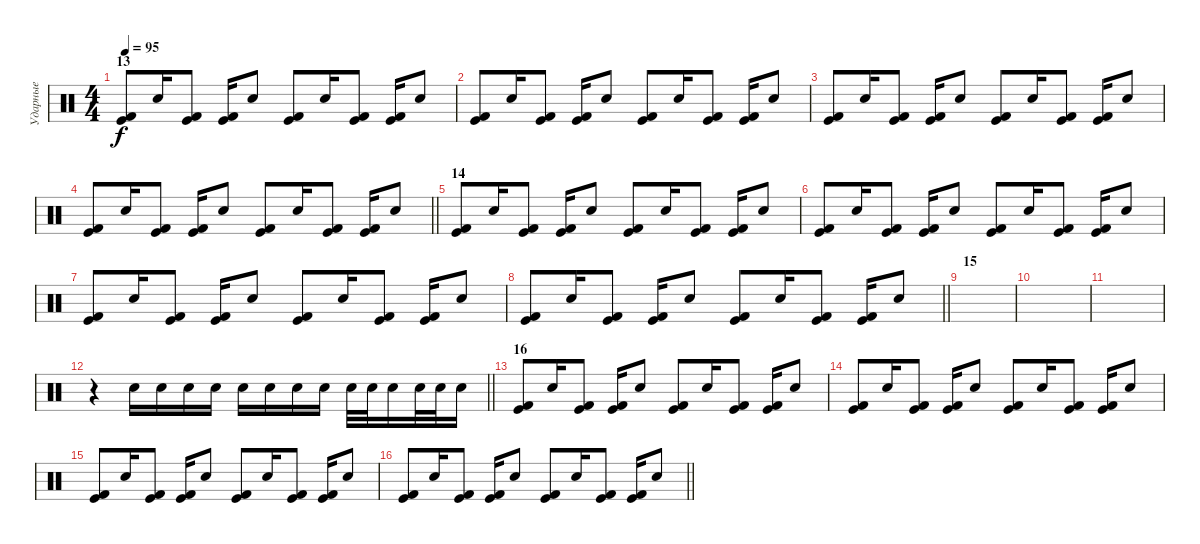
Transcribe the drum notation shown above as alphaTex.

\track ("Ударные" "Ударные") {instrument percussion}
\staff {score}
\articulation defaults
\ts (4 4)
\section ("" "13")
\tempo 95
\clef neutral
\ks c
("Kick (hit) 2" "Kick (hit)").8{dy f} "Electric Snare (hit)".16 ("Kick (hit) 2" "Kick (hit)").8 ("Kick (hit) 2" "Kick (hit)").16 "Electric Snare (hit)".8 ("Kick (hit) 2" "Kick (hit)").8 "Electric Snare (hit)".16 ("Kick (hit) 2" "Kick (hit)").8 ("Kick (hit) 2" "Kick (hit)").16 "Electric Snare (hit)".8 |
("Kick (hit) 2" "Kick (hit)").8 "Electric Snare (hit)".16 ("Kick (hit) 2" "Kick (hit)").8 ("Kick (hit) 2" "Kick (hit)").16 "Electric Snare (hit)".8 ("Kick (hit) 2" "Kick (hit)").8 "Electric Snare (hit)".16 ("Kick (hit) 2" "Kick (hit)").8 ("Kick (hit) 2" "Kick (hit)").16 "Electric Snare (hit)".8 |
("Kick (hit) 2" "Kick (hit)").8 "Electric Snare (hit)".16 ("Kick (hit) 2" "Kick (hit)").8 ("Kick (hit) 2" "Kick (hit)").16 "Electric Snare (hit)".8 ("Kick (hit) 2" "Kick (hit)").8 "Electric Snare (hit)".16 ("Kick (hit) 2" "Kick (hit)").8 ("Kick (hit) 2" "Kick (hit)").16 "Electric Snare (hit)".8 |
\barLineRight lightlight
("Kick (hit) 2" "Kick (hit)").8 "Electric Snare (hit)".16 ("Kick (hit) 2" "Kick (hit)").8 ("Kick (hit) 2" "Kick (hit)").16 "Electric Snare (hit)".8 ("Kick (hit) 2" "Kick (hit)").8 "Electric Snare (hit)".16 ("Kick (hit) 2" "Kick (hit)").8 ("Kick (hit) 2" "Kick (hit)").16 "Electric Snare (hit)".8 |
\section ("" "14")
("Kick (hit) 2" "Kick (hit)").8 "Electric Snare (hit)".16 ("Kick (hit) 2" "Kick (hit)").8 ("Kick (hit) 2" "Kick (hit)").16 "Electric Snare (hit)".8 ("Kick (hit) 2" "Kick (hit)").8 "Electric Snare (hit)".16 ("Kick (hit) 2" "Kick (hit)").8 ("Kick (hit) 2" "Kick (hit)").16 "Electric Snare (hit)".8 |
("Kick (hit) 2" "Kick (hit)").8 "Electric Snare (hit)".16 ("Kick (hit) 2" "Kick (hit)").8 ("Kick (hit) 2" "Kick (hit)").16 "Electric Snare (hit)".8 ("Kick (hit) 2" "Kick (hit)").8 "Electric Snare (hit)".16 ("Kick (hit) 2" "Kick (hit)").8 ("Kick (hit) 2" "Kick (hit)").16 "Electric Snare (hit)".8 |
("Kick (hit) 2" "Kick (hit)").8 "Electric Snare (hit)".16 ("Kick (hit) 2" "Kick (hit)").8 ("Kick (hit) 2" "Kick (hit)").16 "Electric Snare (hit)".8 ("Kick (hit) 2" "Kick (hit)").8 "Electric Snare (hit)".16 ("Kick (hit) 2" "Kick (hit)").8 ("Kick (hit) 2" "Kick (hit)").16 "Electric Snare (hit)".8 |
\barLineRight lightlight
("Kick (hit) 2" "Kick (hit)").8 "Electric Snare (hit)".16 ("Kick (hit) 2" "Kick (hit)").8 ("Kick (hit) 2" "Kick (hit)").16 "Electric Snare (hit)".8 ("Kick (hit) 2" "Kick (hit)").8 "Electric Snare (hit)".16 ("Kick (hit) 2" "Kick (hit)").8 ("Kick (hit) 2" "Kick (hit)").16 "Electric Snare (hit)".8 |
\section ("" "15")
|
|
|
\barLineRight lightlight
r.4 "Electric Snare (hit)".16 "Electric Snare (hit)".16 "Electric Snare (hit)".16 "Electric Snare (hit)".16 "Electric Snare (hit)".16 "Electric Snare (hit)".16 "Electric Snare (hit)".16 "Electric Snare (hit)".16 "Electric Snare (hit)".32 "Electric Snare (hit)".32 "Electric Snare (hit)".16 "Electric Snare (hit)".32 "Electric Snare (hit)".32 "Electric Snare (hit)".16 |
\section ("" "16")
("Kick (hit) 2" "Kick (hit)").8 "Electric Snare (hit)".16 ("Kick (hit) 2" "Kick (hit)").8 ("Kick (hit) 2" "Kick (hit)").16 "Electric Snare (hit)".8 ("Kick (hit) 2" "Kick (hit)").8 "Electric Snare (hit)".16 ("Kick (hit) 2" "Kick (hit)").8 ("Kick (hit) 2" "Kick (hit)").16 "Electric Snare (hit)".8 |
("Kick (hit) 2" "Kick (hit)").8 "Electric Snare (hit)".16 ("Kick (hit) 2" "Kick (hit)").8 ("Kick (hit) 2" "Kick (hit)").16 "Electric Snare (hit)".8 ("Kick (hit) 2" "Kick (hit)").8 "Electric Snare (hit)".16 ("Kick (hit) 2" "Kick (hit)").8 ("Kick (hit) 2" "Kick (hit)").16 "Electric Snare (hit)".8 |
("Kick (hit) 2" "Kick (hit)").8 "Electric Snare (hit)".16 ("Kick (hit) 2" "Kick (hit)").8 ("Kick (hit) 2" "Kick (hit)").16 "Electric Snare (hit)".8 ("Kick (hit) 2" "Kick (hit)").8 "Electric Snare (hit)".16 ("Kick (hit) 2" "Kick (hit)").8 ("Kick (hit) 2" "Kick (hit)").16 "Electric Snare (hit)".8 |
\barLineRight lightlight
("Kick (hit) 2" "Kick (hit)").8 "Electric Snare (hit)".16 ("Kick (hit) 2" "Kick (hit)").8 ("Kick (hit) 2" "Kick (hit)").16 "Electric Snare (hit)".8 ("Kick (hit) 2" "Kick (hit)").8 "Electric Snare (hit)".16 ("Kick (hit) 2" "Kick (hit)").8 ("Kick (hit) 2" "Kick (hit)").16 "Electric Snare (hit)".8
